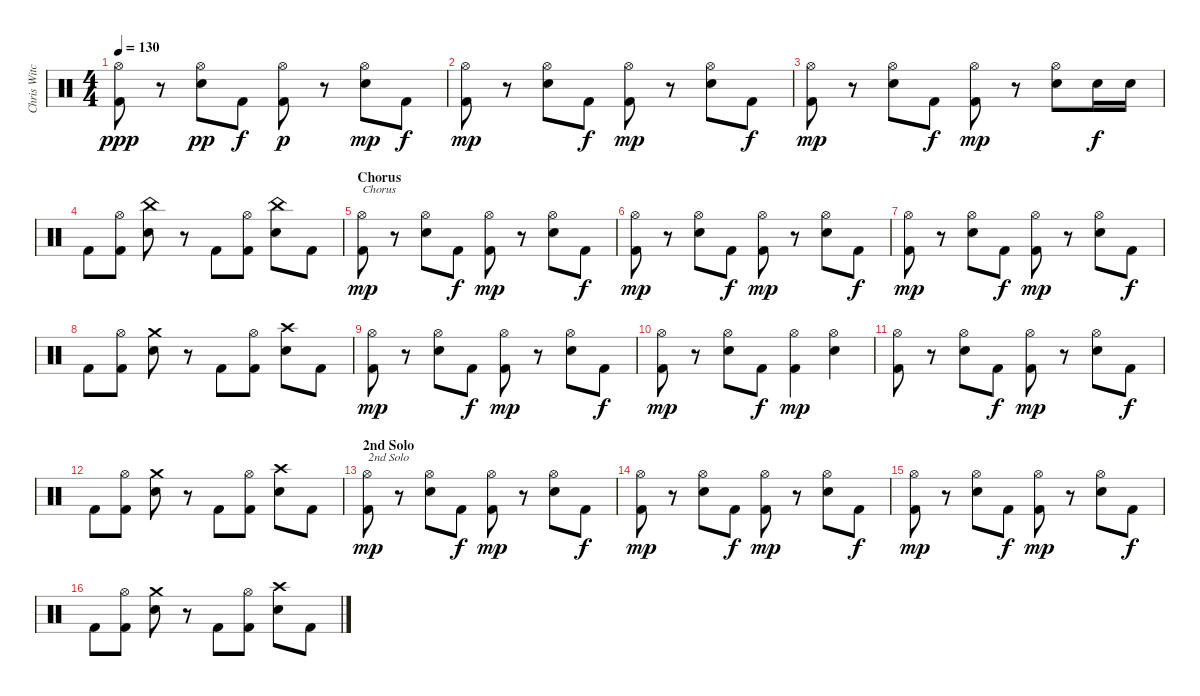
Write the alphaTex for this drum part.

\track ("Chris Witchhunter" "Chris Witc") {instrument percussion}
\staff {score}
\articulation defaults
\ts (4 4)
\tempo 130
\clef neutral
\ks c
("Hi-Hat (open)" "Kick (hit) 2").8{dy ppp} r.8 ("Hi-Hat (open)" "Electric Snare (hit)").8{dy pp} "Kick (hit) 2".8{dy f} ("Hi-Hat (open)" "Kick (hit) 2").8{dy p} r.8 ("Hi-Hat (open)" "Electric Snare (hit)").8{dy mp} "Kick (hit) 2".8{dy f} |
("Hi-Hat (open)" "Kick (hit) 2").8{dy mp} r.8 ("Hi-Hat (open)" "Electric Snare (hit)").8 "Kick (hit) 2".8{dy f} ("Hi-Hat (open)" "Kick (hit) 2").8{dy mp} r.8 ("Hi-Hat (open)" "Electric Snare (hit)").8 "Kick (hit) 2".8{dy f} |
("Hi-Hat (open)" "Kick (hit) 2").8{dy mp} r.8 ("Hi-Hat (open)" "Electric Snare (hit)").8 "Kick (hit) 2".8{dy f} ("Hi-Hat (open)" "Kick (hit) 2").8{dy mp} r.8 ("Hi-Hat (open)" "Electric Snare (hit)").8 "Snare (hit) 2".16{dy f} "Electric Snare (hit)".16 |
"Kick (hit) 2".8 ("Hi-Hat (open)" "Kick (hit) 2").8 ("China (hit)" "Electric Snare (hit)").8 r.8 "Kick (hit) 2".8 ("Hi-Hat (open)" "Kick (hit) 2").8 ("China (hit)" "Electric Snare (hit)").8 "Kick (hit) 2".8 |
\section ("" "Chorus")
("Hi-Hat (open)" "Kick (hit) 2").8{txt "Chorus" dy mp} r.8 ("Hi-Hat (open)" "Electric Snare (hit)").8 "Kick (hit) 2".8{dy f} ("Hi-Hat (open)" "Kick (hit) 2").8{dy mp} r.8 ("Hi-Hat (open)" "Electric Snare (hit)").8 "Kick (hit) 2".8{dy f} |
("Hi-Hat (open)" "Kick (hit) 2").8{dy mp} r.8 ("Hi-Hat (open)" "Electric Snare (hit)").8 "Kick (hit) 2".8{dy f} ("Hi-Hat (open)" "Kick (hit) 2").8{dy mp} r.8 ("Hi-Hat (open)" "Electric Snare (hit)").8 "Kick (hit) 2".8{dy f} |
("Hi-Hat (open)" "Kick (hit) 2").8{dy mp} r.8 ("Hi-Hat (open)" "Electric Snare (hit)").8 "Kick (hit) 2".8{dy f} ("Hi-Hat (open)" "Kick (hit) 2").8{dy mp} r.8 ("Hi-Hat (open)" "Electric Snare (hit)").8 "Kick (hit) 2".8{dy f} |
"Kick (hit) 2".8 ("Hi-Hat (open)" "Kick (hit) 2").8 ("Crash medium (hit)" "Electric Snare (hit)").8 r.8 "Kick (hit) 2".8 ("Hi-Hat (open)" "Kick (hit) 2").8 ("Crash high (hit)" "Electric Snare (hit)").8 "Kick (hit) 2".8 |
("Hi-Hat (open)" "Kick (hit) 2").8{dy mp} r.8 ("Hi-Hat (open)" "Electric Snare (hit)").8 "Kick (hit) 2".8{dy f} ("Hi-Hat (open)" "Kick (hit) 2").8{dy mp} r.8 ("Hi-Hat (open)" "Electric Snare (hit)").8 "Kick (hit) 2".8{dy f} |
("Hi-Hat (open)" "Kick (hit) 2").8{dy mp} r.8 ("Hi-Hat (open)" "Electric Snare (hit)").8 "Kick (hit) 2".8{dy f} ("Hi-Hat (open)" "Kick (hit) 2").4{dy mp} ("Hi-Hat (open)" "Electric Snare (hit)").4 |
("Hi-Hat (open)" "Kick (hit) 2").8 r.8 ("Hi-Hat (open)" "Electric Snare (hit)").8 "Kick (hit) 2".8{dy f} ("Hi-Hat (open)" "Kick (hit) 2").8{dy mp} r.8 ("Hi-Hat (open)" "Electric Snare (hit)").8 "Kick (hit) 2".8{dy f} |
"Kick (hit) 2".8 ("Hi-Hat (open)" "Kick (hit) 2").8 ("Crash medium (hit)" "Electric Snare (hit)").8 r.8 "Kick (hit) 2".8 ("Hi-Hat (open)" "Kick (hit) 2").8 ("Crash high (hit)" "Electric Snare (hit)").8 "Kick (hit) 2".8 |
\section ("" "2nd Solo")
("Hi-Hat (open)" "Kick (hit) 2").8{txt "2nd Solo" dy mp} r.8 ("Hi-Hat (open)" "Electric Snare (hit)").8 "Kick (hit) 2".8{dy f} ("Hi-Hat (open)" "Kick (hit) 2").8{dy mp} r.8 ("Hi-Hat (open)" "Electric Snare (hit)").8 "Kick (hit) 2".8{dy f} |
("Hi-Hat (open)" "Kick (hit) 2").8{dy mp} r.8 ("Hi-Hat (open)" "Electric Snare (hit)").8 "Kick (hit) 2".8{dy f} ("Hi-Hat (open)" "Kick (hit) 2").8{dy mp} r.8 ("Hi-Hat (open)" "Electric Snare (hit)").8 "Kick (hit) 2".8{dy f} |
("Hi-Hat (open)" "Kick (hit) 2").8{dy mp} r.8 ("Hi-Hat (open)" "Electric Snare (hit)").8 "Kick (hit) 2".8{dy f} ("Hi-Hat (open)" "Kick (hit) 2").8{dy mp} r.8 ("Hi-Hat (open)" "Electric Snare (hit)").8 "Kick (hit) 2".8{dy f} |
"Kick (hit) 2".8 ("Hi-Hat (open)" "Kick (hit) 2").8 ("Crash medium (hit)" "Electric Snare (hit)").8 r.8 "Kick (hit) 2".8 ("Hi-Hat (open)" "Kick (hit) 2").8 ("Crash high (hit)" "Electric Snare (hit)").8 "Kick (hit) 2".8
